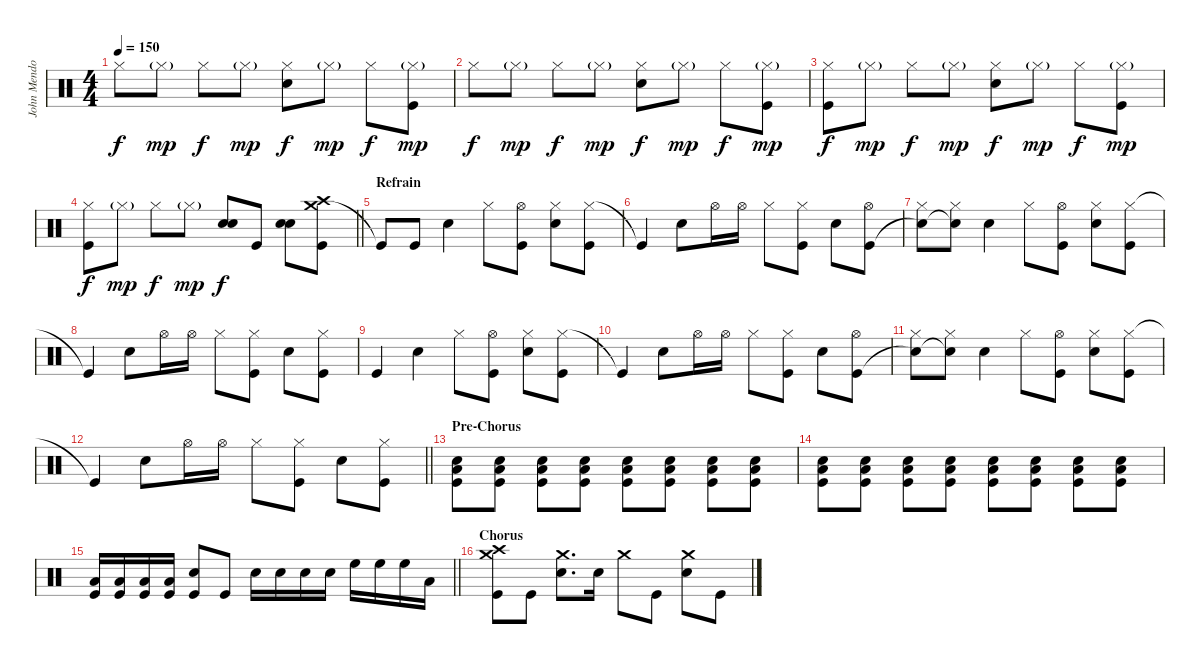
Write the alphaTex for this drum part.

\track ("John Mendoza" "John Mendo") {instrument percussion}
\staff {score}
\articulation defaults
\ts (4 4)
\tempo 150
\clef neutral
\ks c "Hi-Hat (closed)".8{dy f} "Hi-Hat (closed)"{g}.8{dy mp} "Hi-Hat (closed)".8{dy f} "Hi-Hat (closed)"{g}.8{dy mp}
("Hi-Hat (closed)" "Snare (hit) 2").8{dy f} "Hi-Hat (closed)"{g}.8{dy mp} "Hi-Hat (closed)".8{dy f} ("Hi-Hat (closed)"{g} "Kick (hit)").8{dy mp} |
"Hi-Hat (closed)".8{dy f} "Hi-Hat (closed)"{g}.8{dy mp} "Hi-Hat (closed)".8{dy f} "Hi-Hat (closed)"{g}.8{dy mp} ("Hi-Hat (closed)" "Snare (hit) 2").8{dy f} "Hi-Hat (closed)"{g}.8{dy mp} "Hi-Hat (closed)".8{dy f} ("Hi-Hat (closed)"{g} "Kick (hit)").8{dy mp} |
("Hi-Hat (closed)" "Kick (hit)").8{dy f} "Hi-Hat (closed)"{g}.8{dy mp} "Hi-Hat (closed)".8{dy f} "Hi-Hat (closed)"{g}.8{dy mp} ("Hi-Hat (closed)" "Snare (hit) 2").8{dy f} "Hi-Hat (closed)"{g}.8{dy mp} "Hi-Hat (closed)".8{dy f} ("Hi-Hat (closed)"{g} "Kick (hit)").8{dy mp} |
\barLineRight lightlight
("Hi-Hat (closed)" "Kick (hit)").8{dy f} "Hi-Hat (closed)"{g}.8{dy mp} "Hi-Hat (closed)".8{dy f} "Hi-Hat (closed)"{g}.8{dy mp} ("Snare (hit) 2" "Snare (hit) 2").8{dy f} "Kick (hit)".8 ("Snare (hit) 2" "Snare (hit) 2").8 ("Crash medium (hit)" "Crash high (hit)" "Kick (hit)").8 |
\section ("" "Refrain")
"Kick (hit)"{t}.8 "Kick (hit)".8 "Snare (hit) 2".4 "Hi-Hat (closed)".8 ("Hi-Hat (open)" "Kick (hit)").8 ("Hi-Hat (closed)" "Snare (hit) 2").8 ("Hi-Hat (closed)" "Kick (hit)").8 |
"Kick (hit)"{t}.4 "Snare (hit) 2".8 "Hi-Hat (open)".16 "Hi-Hat (open)".16 "Hi-Hat (closed)".8 ("Hi-Hat (closed)" "Kick (hit)").8 "Snare (hit) 2".8 ("Hi-Hat (open)" "Kick (hit)").8 |
("Hi-Hat (closed)" "Snare (hit)"{t}).8 ("Hi-Hat (closed)" "Snare (hit)"{t}).8 "Snare (hit) 2".4 "Hi-Hat (closed)".8 ("Hi-Hat (open)" "Kick (hit)").8 ("Hi-Hat (closed)" "Snare (hit) 2").8 ("Hi-Hat (closed)" "Kick (hit)").8 |
"Kick (hit)"{t}.4 "Snare (hit) 2".8 "Hi-Hat (open)".16 "Hi-Hat (open)".16 "Hi-Hat (closed)".8 ("Hi-Hat (closed)" "Kick (hit)").8 "Snare (hit) 2".8 ("Hi-Hat (closed)" "Kick (hit)").8 |
"Kick (hit)".4 "Snare (hit) 2".4 "Hi-Hat (closed)".8 ("Hi-Hat (open)" "Kick (hit)").8 ("Hi-Hat (closed)" "Snare (hit) 2").8 ("Hi-Hat (closed)" "Kick (hit)").8 |
"Kick (hit)"{t}.4 "Snare (hit) 2".8 "Hi-Hat (open)".16 "Hi-Hat (open)".16 "Hi-Hat (closed)".8 ("Hi-Hat (closed)" "Kick (hit)").8 "Snare (hit) 2".8 ("Hi-Hat (open)" "Kick (hit)").8 |
("Hi-Hat (closed)" "Snare (hit)"{t}).8 ("Hi-Hat (closed)" "Snare (hit)"{t}).8 "Snare (hit) 2".4 "Hi-Hat (closed)".8 ("Hi-Hat (open)" "Kick (hit)").8 ("Hi-Hat (closed)" "Snare (hit) 2").8 ("Hi-Hat (closed)" "Kick (hit)").8 |
\barLineRight lightlight "Kick (hit)"{t}.4 "Snare (hit) 2".8 "Hi-Hat (open)".16 "Hi-Hat (open)".16 "Hi-Hat (closed)".8
("Hi-Hat (closed)" "Kick (hit)").8 "Snare (hit) 2".8 ("Hi-Hat (closed)" "Kick (hit)").8 |
\section ("" "Pre-Chorus")
("Low Floor Tom (hit)" "Snare (hit) 2" "Kick (hit)").8{volume 2} ("Low Floor Tom (hit)" "Snare (hit) 2" "Kick (hit)").8{volume 14} ("Low Floor Tom (hit)" "Snare (hit) 2" "Kick (hit)").8 ("Low Floor Tom (hit)" "Snare (hit) 2" "Kick (hit)").8 ("Low Floor Tom (hit)" "Snare (hit) 2" "Kick (hit)").8 ("Low Floor Tom (hit)" "Snare (hit) 2" "Kick (hit)").8 ("Low Floor Tom (hit)" "Snare (hit) 2" "Kick (hit)").8 ("Low Floor Tom (hit)" "Snare (hit) 2" "Kick (hit)").8 |
("Low Floor Tom (hit)" "Snare (hit) 2" "Kick (hit)").8 ("Low Floor Tom (hit)" "Snare (hit) 2" "Kick (hit)").8 ("Low Floor Tom (hit)" "Snare (hit) 2" "Kick (hit)").8 ("Low Floor Tom (hit)" "Snare (hit) 2" "Kick (hit)").8 ("Low Floor Tom (hit)" "Snare (hit) 2" "Kick (hit)").8 ("Low Floor Tom (hit)" "Snare (hit) 2" "Kick (hit)").8 ("Low Floor Tom (hit)" "Snare (hit) 2" "Kick (hit)").8 ("Low Floor Tom (hit)" "Snare (hit) 2" "Kick (hit)").8 |
\barLineRight lightlight
("Low Floor Tom (hit)" "Kick (hit)").16 ("Low Floor Tom (hit)" "Kick (hit)").16 ("Low Floor Tom (hit)" "Kick (hit)").16 ("Low Floor Tom (hit)" "Kick (hit)").16 ("Snare (hit) 2" "Kick (hit)").8 "Kick (hit)".8 "Snare (hit) 2".16 "Snare (hit) 2".16 "Snare (hit) 2".16 "Snare (hit) 2".16 "High Floor Tom (hit)".16 "High Floor Tom (hit)".16 "High Floor Tom (hit)".16 "Low Tom (hit)".16 |
\section ("" "Chorus")
("Crash medium (hit)" "Crash high (hit)" "Kick (hit)").8 "Kick (hit)".8 ("Crash medium (hit)" "Snare (hit) 2").8{d} "Snare (hit) 2".16 "Crash medium (hit)".8 "Kick (hit)".8 ("Crash medium (hit)" "Snare (hit) 2").8 "Kick (hit)".8
